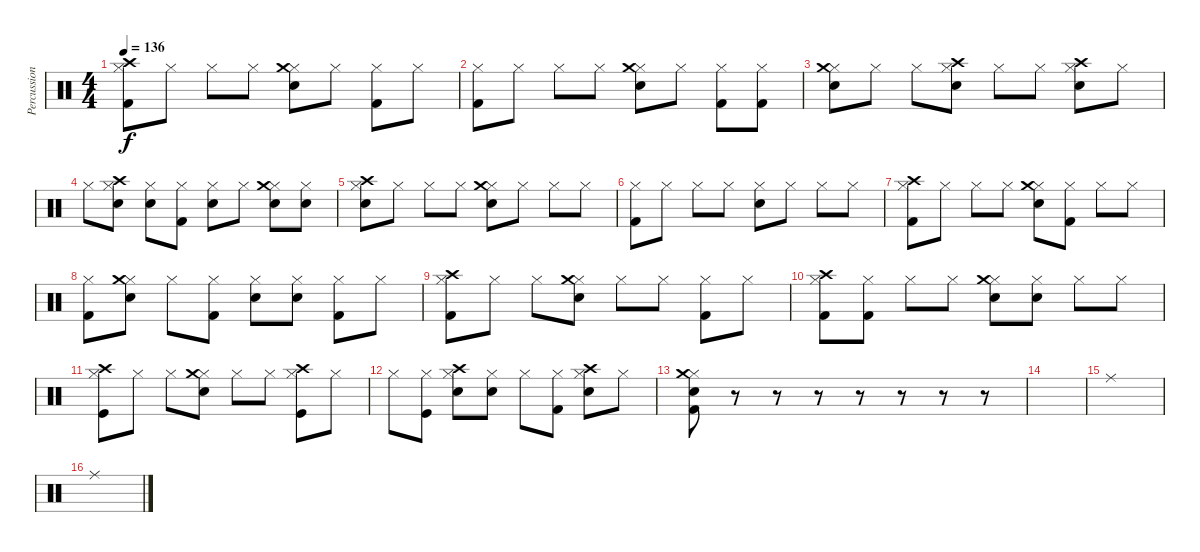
\track ("Percussion" "Percussion") {instrument percussion}
\staff {score}
\articulation defaults
\ts (4 4)
\tempo 136
\clef neutral
\ks c
("Hi-Hat (closed)" "Crash high (hit)" "Kick (hit) 2").8{dy f} "Hi-Hat (closed)".8 "Hi-Hat (closed)".8 "Hi-Hat (closed)".8 ("Hi-Hat (closed)" "Electric Snare (hit)" "Crash medium (hit)").8 "Hi-Hat (closed)".8 ("Hi-Hat (closed)" "Kick (hit) 2").8 "Hi-Hat (closed)".8 |
("Hi-Hat (closed)" "Kick (hit) 2").8 "Hi-Hat (closed)".8 "Hi-Hat (closed)".8 "Hi-Hat (closed)".8 ("Hi-Hat (closed)" "Electric Snare (hit)" "Crash medium (hit)").8 "Hi-Hat (closed)".8 ("Hi-Hat (closed)" "Kick (hit) 2").8 ("Hi-Hat (closed)" "Kick (hit) 2").8 |
("Hi-Hat (closed)" "Electric Snare (hit)" "Crash medium (hit)").8 "Hi-Hat (closed)".8 "Hi-Hat (closed)".8 ("Hi-Hat (closed)" "Electric Snare (hit)" "Crash high (hit)").8 "Hi-Hat (closed)".8 "Hi-Hat (closed)".8 ("Hi-Hat (closed)" "Electric Snare (hit)" "Crash high (hit)").8 "Hi-Hat (closed)".8 |
"Hi-Hat (closed)".8 ("Hi-Hat (closed)" "Electric Snare (hit)" "Crash high (hit)").8 ("Hi-Hat (closed)" "Electric Snare (hit)").8 ("Hi-Hat (closed)" "Kick (hit) 2").8 ("Hi-Hat (closed)" "Electric Snare (hit)").8 "Hi-Hat (closed)".8 ("Hi-Hat (closed)" "Electric Snare (hit)" "Crash medium (hit)").8 ("Hi-Hat (closed)" "Electric Snare (hit)").8 |
("Hi-Hat (closed)" "Electric Snare (hit)" "Crash high (hit)").8 "Hi-Hat (closed)".8 "Hi-Hat (closed)".8 "Hi-Hat (closed)".8 ("Hi-Hat (closed)" "Electric Snare (hit)" "Crash medium (hit)").8 "Hi-Hat (closed)".8 "Hi-Hat (closed)".8 "Hi-Hat (closed)".8 |
("Hi-Hat (closed)" "Kick (hit) 2").8 "Hi-Hat (closed)".8 "Hi-Hat (closed)".8 "Hi-Hat (closed)".8 ("Hi-Hat (closed)" "Electric Snare (hit)").8 "Hi-Hat (closed)".8 "Hi-Hat (closed)".8 "Hi-Hat (closed)".8 |
("Hi-Hat (closed)" "Crash high (hit)" "Kick (hit) 2").8 "Hi-Hat (closed)".8 "Hi-Hat (closed)".8 "Hi-Hat (closed)".8 ("Hi-Hat (closed)" "Electric Snare (hit)" "Crash medium (hit)").8 ("Hi-Hat (closed)" "Kick (hit) 2").8 "Hi-Hat (closed)".8 "Hi-Hat (closed)".8 |
("Hi-Hat (closed)" "Kick (hit) 2").8 ("Hi-Hat (closed)" "Electric Snare (hit)" "Crash medium (hit)").8 "Hi-Hat (closed)".8 ("Hi-Hat (closed)" "Kick (hit) 2").8 ("Hi-Hat (closed)" "Electric Snare (hit)").8 ("Hi-Hat (closed)" "Electric Snare (hit)").8 ("Hi-Hat (closed)" "Kick (hit) 2").8 "Hi-Hat (closed)".8 |
("Hi-Hat (closed)" "Crash high (hit)" "Kick (hit) 2").8 "Hi-Hat (closed)".8 "Hi-Hat (closed)".8 ("Hi-Hat (closed)" "Electric Snare (hit)" "Crash medium (hit)").8 "Hi-Hat (closed)".8 "Hi-Hat (closed)".8 ("Hi-Hat (closed)" "Kick (hit) 2").8 "Hi-Hat (closed)".8 |
("Hi-Hat (closed)" "Crash high (hit)" "Kick (hit) 2").8 ("Hi-Hat (closed)" "Kick (hit) 2").8 "Hi-Hat (closed)".8 "Hi-Hat (closed)".8 ("Hi-Hat (closed)" "Electric Snare (hit)" "Crash medium (hit)").8 ("Hi-Hat (closed)" "Electric Snare (hit)").8 "Hi-Hat (closed)".8 "Hi-Hat (closed)".8 |
("Hi-Hat (closed)" "Crash high (hit)" "Kick (hit)").8 "Hi-Hat (closed)".8 "Hi-Hat (closed)".8 ("Hi-Hat (closed)" "Electric Snare (hit)" "Crash medium (hit)").8 "Hi-Hat (closed)".8 "Hi-Hat (closed)".8 ("Hi-Hat (closed)" "Crash high (hit)" "Kick (hit)").8 "Hi-Hat (closed)".8 |
"Hi-Hat (closed)".8 ("Hi-Hat (closed)" "Kick (hit)").8 ("Hi-Hat (closed)" "Electric Snare (hit)" "Crash high (hit)").8 ("Hi-Hat (closed)" "Electric Snare (hit)").8 "Hi-Hat (closed)".8 ("Hi-Hat (closed)" "Kick (hit) 2").8 ("Hi-Hat (closed)" "Electric Snare (hit)" "Crash high (hit)").8 "Hi-Hat (closed)".8 |
("Hi-Hat (closed)" "Electric Snare (hit)" "Crash medium (hit)" "Kick (hit) 2").8 r.8 r.8 r.8 r.8 r.8 r.8 r.8 |
|
"Ride (middle)".1 |
"Ride (middle)".1
